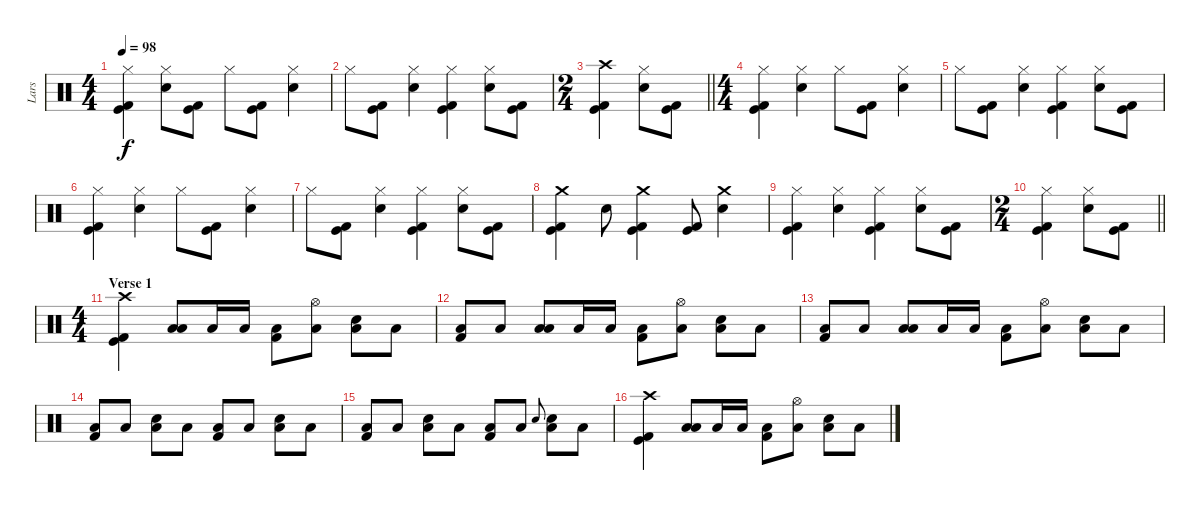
\track ("Lars" "Lars") {instrument percussion}
\staff {score}
\articulation defaults
\ts (4 4)
\tempo 98
\clef neutral
\ks c
("Hi-Hat (closed)" "Kick (hit)" "Kick (hit) 2").4{dy f} ("Hi-Hat (closed)" "Electric Snare (hit)").8 ("Kick (hit)" "Kick (hit) 2").8 "Hi-Hat (closed)".8 ("Kick (hit)" "Kick (hit) 2").8 ("Hi-Hat (closed)" "Electric Snare (hit)").4 |
"Hi-Hat (closed)".8 ("Kick (hit)" "Kick (hit) 2").8 ("Hi-Hat (closed)" "Electric Snare (hit)").4 ("Hi-Hat (closed)" "Kick (hit)" "Kick (hit) 2").4 ("Hi-Hat (closed)" "Electric Snare (hit)").8 ("Kick (hit)" "Kick (hit) 2").8 |
\ts (2 4)
\barLineRight lightlight
("Crash high (hit)" "Kick (hit)" "Kick (hit) 2").4 ("Hi-Hat (closed)" "Electric Snare (hit)").8 ("Kick (hit)" "Kick (hit) 2").8 |
\ts (4 4)
\section ("" "")
("Hi-Hat (closed)" "Kick (hit)" "Kick (hit) 2").4 ("Hi-Hat (closed)" "Electric Snare (hit)").4 "Hi-Hat (closed)".8 ("Kick (hit)" "Kick (hit) 2").8 ("Hi-Hat (closed)" "Electric Snare (hit)").4 |
"Hi-Hat (closed)".8 ("Kick (hit)" "Kick (hit) 2").8 ("Hi-Hat (closed)" "Electric Snare (hit)").4 ("Hi-Hat (closed)" "Kick (hit)" "Kick (hit) 2").4 ("Hi-Hat (closed)" "Electric Snare (hit)").8 ("Kick (hit)" "Kick (hit) 2").8 |
("Hi-Hat (closed)" "Kick (hit)" "Kick (hit) 2").4 ("Hi-Hat (closed)" "Electric Snare (hit)").4 "Hi-Hat (closed)".8 ("Kick (hit)" "Kick (hit) 2").8 ("Hi-Hat (closed)" "Electric Snare (hit)").4 |
"Hi-Hat (closed)".8 ("Kick (hit)" "Kick (hit) 2").8 ("Hi-Hat (closed)" "Electric Snare (hit)").4 ("Hi-Hat (closed)" "Kick (hit)" "Kick (hit) 2").4 ("Hi-Hat (closed)" "Electric Snare (hit)").8 ("Kick (hit)" "Kick (hit) 2").8 |
("Crash medium (hit)" "Kick (hit)" "Kick (hit) 2").4 "Electric Snare (hit)".8 ("Crash medium (hit)" "Kick (hit)" "Kick (hit) 2").4 ("Kick (hit)" "Kick (hit) 2").8 ("Crash medium (hit)" "Electric Snare (hit)").4 |
("Hi-Hat (closed)" "Kick (hit)" "Kick (hit) 2").4 ("Hi-Hat (closed)" "Electric Snare (hit)").4 ("Hi-Hat (closed)" "Kick (hit)" "Kick (hit) 2").4 ("Hi-Hat (closed)" "Electric Snare (hit)").8 ("Kick (hit)" "Kick (hit) 2").8 |
\ts (2 4)
\barLineRight lightlight
("Hi-Hat (closed)" "Kick (hit)" "Kick (hit) 2").4 ("Hi-Hat (closed)" "Electric Snare (hit)").8 ("Kick (hit)" "Kick (hit) 2").8 |
\ts (4 4)
\section ("" "Verse 1")
("Crash high (hit)" "Kick (hit)" "Kick (hit) 2").4 ("Low Tom (hit)" "Low Floor Tom (hit)").8 "Low Tom (hit)".16 "Low Floor Tom (hit)".16 ("Low Floor Tom (hit)" "Kick (hit) 2").8 ("Hi-Hat (open)" "Low Floor Tom (hit)").8 ("Electric Snare (hit)" "Low Floor Tom (hit)").8 "Low Floor Tom (hit)".8 |
("Low Floor Tom (hit)" "Kick (hit) 2").8 "Low Floor Tom (hit)".8 ("Low Tom (hit)" "Low Floor Tom (hit)").8 "Low Tom (hit)".16 "Low Floor Tom (hit)".16 ("Low Floor Tom (hit)" "Kick (hit) 2").8 ("Hi-Hat (open)" "Low Floor Tom (hit)").8 ("Electric Snare (hit)" "Low Floor Tom (hit)").8 "Low Floor Tom (hit)".8 |
("Low Floor Tom (hit)" "Kick (hit) 2").8 "Low Floor Tom (hit)".8 ("Low Tom (hit)" "Low Floor Tom (hit)").8 "Low Tom (hit)".16 "Low Floor Tom (hit)".16 ("Low Floor Tom (hit)" "Kick (hit) 2").8 ("Hi-Hat (open)" "Low Floor Tom (hit)").8 ("Electric Snare (hit)" "Low Floor Tom (hit)").8 "Low Floor Tom (hit)".8 |
("Low Floor Tom (hit)" "Kick (hit) 2").8 "Low Floor Tom (hit)".8 ("Electric Snare (hit)" "Low Floor Tom (hit)").8 "Low Floor Tom (hit)".8 ("Low Floor Tom (hit)" "Kick (hit) 2").8 "Low Floor Tom (hit)".8 ("Electric Snare (hit)" "Low Floor Tom (hit)").8 "Low Floor Tom (hit)".8 |
("Low Floor Tom (hit)" "Kick (hit) 2").8 "Low Floor Tom (hit)".8 ("Electric Snare (hit)" "Low Floor Tom (hit)").8 "Low Floor Tom (hit)".8 ("Low Floor Tom (hit)" "Kick (hit) 2").8 "Low Floor Tom (hit)".8 "Electric Snare (hit)".8{gr onbeat} ("Electric Snare (hit)" "Low Floor Tom (hit)").8 "Low Floor Tom (hit)".8 |
("Crash high (hit)" "Kick (hit)" "Kick (hit) 2").4 ("Low Tom (hit)" "Low Floor Tom (hit)").8 "Low Tom (hit)".16 "Low Floor Tom (hit)".16 ("Low Floor Tom (hit)" "Kick (hit) 2").8 ("Hi-Hat (open)" "Low Floor Tom (hit)").8 ("Electric Snare (hit)" "Low Floor Tom (hit)").8 "Low Floor Tom (hit)".8
